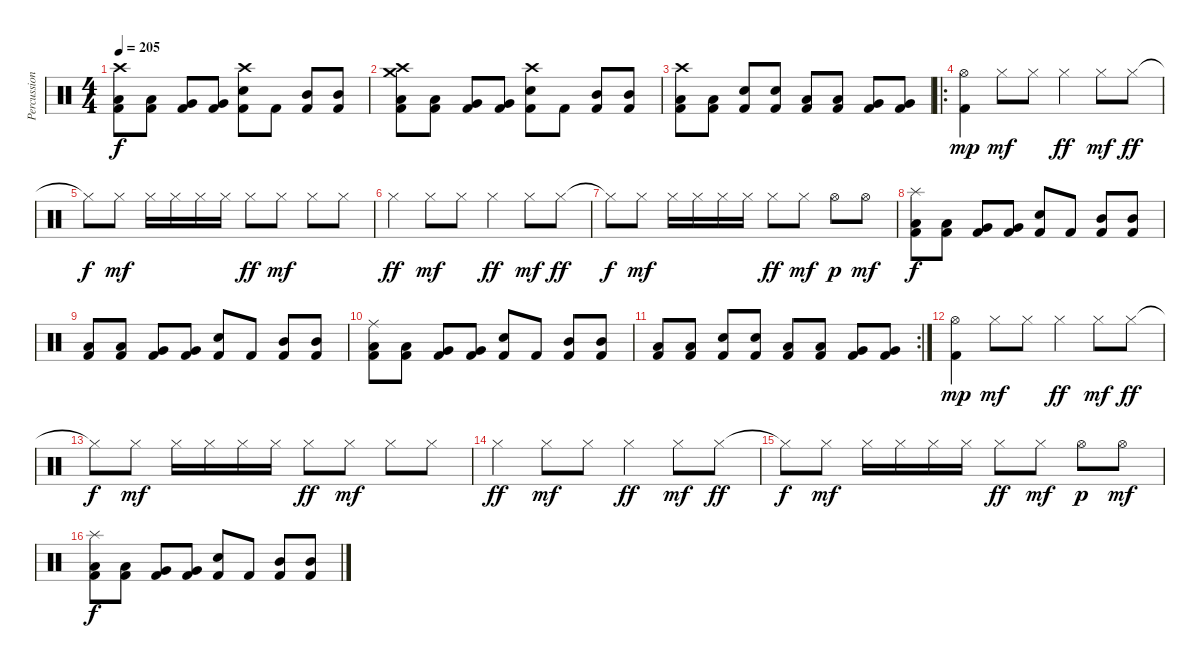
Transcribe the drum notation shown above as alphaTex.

\track ("Percussions" "Percussion") {instrument percussion}
\staff {score}
\articulation defaults
\ts (4 4)
\tempo 205
\clef neutral
\ks c
("Crash high (hit)" "Low Tom (hit)" "Kick (hit) 2").8{dy f} ("Low Tom (hit)" "Kick (hit) 2").8 ("Very Low Tom (hit)" "Kick (hit) 2").8 ("Very Low Tom (hit)" "Kick (hit) 2").8 ("Crash high (hit)" "Snare (hit) 2" "Kick (hit) 2").8 "Kick (hit) 2".8 ("Mid Tom (hit)" "Kick (hit) 2").8 ("Mid Tom (hit)" "Kick (hit) 2").8 |
("Crash medium (hit)" "Crash high (hit)" "Low Tom (hit)" "Kick (hit) 2").8 ("Low Tom (hit)" "Kick (hit) 2").8 ("Very Low Tom (hit)" "Kick (hit) 2").8 ("Very Low Tom (hit)" "Kick (hit) 2").8 ("Crash high (hit)" "Snare (hit) 2" "Kick (hit) 2").8 "Kick (hit) 2".8 ("Mid Tom (hit)" "Kick (hit) 2").8 ("Mid Tom (hit)" "Kick (hit) 2").8 |
("Crash high (hit)" "Low Tom (hit)" "Kick (hit) 2").8 ("Low Tom (hit)" "Kick (hit) 2").8 ("Snare (hit) 2" "Kick (hit) 2").8 ("Snare (hit) 2" "Kick (hit) 2").8 ("Low Tom (hit)" "Kick (hit) 2").8 ("Low Tom (hit)" "Kick (hit) 2").8 ("Very Low Tom (hit)" "Kick (hit) 2").8 ("Very Low Tom (hit)" "Kick (hit) 2").8 |
\ro
("Hi-Hat (open)" "Kick (hit) 2").4{dy mp} "Hi-Hat (closed)".8{dy mf} "Hi-Hat (closed)".8 "Hi-Hat (closed)".4{dy ff} "Hi-Hat (closed)".8{dy mf} "Hi-Hat (closed)".8{dy ff} |
"Hi-Hat (closed)"{t}.8{dy f} "Hi-Hat (closed)".8{dy mf} "Hi-Hat (closed)".16 "Hi-Hat (closed)".16 "Hi-Hat (closed)".16 "Hi-Hat (closed)".16 "Hi-Hat (closed)".8{dy ff} "Hi-Hat (closed)".8{dy mf} "Hi-Hat (closed)".8 "Hi-Hat (closed)".8 |
"Hi-Hat (closed)".4{dy ff} "Hi-Hat (closed)".8{dy mf} "Hi-Hat (closed)".8 "Hi-Hat (closed)".4{dy ff} "Hi-Hat (closed)".8{dy mf} "Hi-Hat (closed)".8{dy ff} |
"Hi-Hat (closed)"{t}.8{dy f} "Hi-Hat (closed)".8{dy mf} "Hi-Hat (closed)".16 "Hi-Hat (closed)".16 "Hi-Hat (closed)".16 "Hi-Hat (closed)".16 "Hi-Hat (closed)".8{dy ff} "Hi-Hat (closed)".8{dy mf} "Hi-Hat (open)".8{dy p} "Hi-Hat (open)".8{dy mf} |
("Splash (hit)" "Low Tom (hit)" "Kick (hit) 2").8{dy f} ("Low Tom (hit)" "Kick (hit) 2").8 ("Very Low Tom (hit)" "Kick (hit) 2").8 ("Very Low Tom (hit)" "Kick (hit) 2").8 ("Snare (hit) 2" "Kick (hit) 2").8 "Kick (hit) 2".8 ("Mid Tom (hit)" "Kick (hit) 2").8 ("Mid Tom (hit)" "Kick (hit) 2").8 |
("Low Tom (hit)" "Kick (hit) 2").8 ("Low Tom (hit)" "Kick (hit) 2").8 ("Very Low Tom (hit)" "Kick (hit) 2").8 ("Very Low Tom (hit)" "Kick (hit) 2").8 ("Snare (hit) 2" "Kick (hit) 2").8 "Kick (hit) 2".8 ("Mid Tom (hit)" "Kick (hit) 2").8 ("Mid Tom (hit)" "Kick (hit) 2").8 |
("Ride (middle)" "Low Tom (hit)" "Kick (hit) 2").8 ("Low Tom (hit)" "Kick (hit) 2").8 ("Very Low Tom (hit)" "Kick (hit) 2").8 ("Very Low Tom (hit)" "Kick (hit) 2").8 ("Snare (hit) 2" "Kick (hit) 2").8 "Kick (hit) 2".8 ("Mid Tom (hit)" "Kick (hit) 2").8 ("Mid Tom (hit)" "Kick (hit) 2").8 |
\rc 2
("Low Tom (hit)" "Kick (hit) 2").8 ("Low Tom (hit)" "Kick (hit) 2").8 ("Snare (hit) 2" "Kick (hit) 2").8 ("Snare (hit) 2" "Kick (hit) 2").8 ("Low Tom (hit)" "Kick (hit) 2").8 ("Low Tom (hit)" "Kick (hit) 2").8 ("Very Low Tom (hit)" "Kick (hit) 2").8 ("Very Low Tom (hit)" "Kick (hit) 2").8 |
("Hi-Hat (open)" "Kick (hit) 2").4{dy mp} "Hi-Hat (closed)".8{dy mf} "Hi-Hat (closed)".8 "Hi-Hat (closed)".4{dy ff} "Hi-Hat (closed)".8{dy mf} "Hi-Hat (closed)".8{dy ff} |
"Hi-Hat (closed)"{t}.8{dy f} "Hi-Hat (closed)".8{dy mf} "Hi-Hat (closed)".16 "Hi-Hat (closed)".16 "Hi-Hat (closed)".16 "Hi-Hat (closed)".16 "Hi-Hat (closed)".8{dy ff} "Hi-Hat (closed)".8{dy mf} "Hi-Hat (closed)".8 "Hi-Hat (closed)".8 |
"Hi-Hat (closed)".4{dy ff} "Hi-Hat (closed)".8{dy mf} "Hi-Hat (closed)".8 "Hi-Hat (closed)".4{dy ff} "Hi-Hat (closed)".8{dy mf} "Hi-Hat (closed)".8{dy ff} |
"Hi-Hat (closed)"{t}.8{dy f} "Hi-Hat (closed)".8{dy mf} "Hi-Hat (closed)".16 "Hi-Hat (closed)".16 "Hi-Hat (closed)".16 "Hi-Hat (closed)".16 "Hi-Hat (closed)".8{dy ff} "Hi-Hat (closed)".8{dy mf} "Hi-Hat (open)".8{dy p} "Hi-Hat (open)".8{dy mf} |
("Splash (hit)" "Low Tom (hit)" "Kick (hit) 2").8{dy f} ("Low Tom (hit)" "Kick (hit) 2").8 ("Very Low Tom (hit)" "Kick (hit) 2").8 ("Very Low Tom (hit)" "Kick (hit) 2").8 ("Snare (hit) 2" "Kick (hit) 2").8 "Kick (hit) 2".8 ("Mid Tom (hit)" "Kick (hit) 2").8 ("Mid Tom (hit)" "Kick (hit) 2").8
